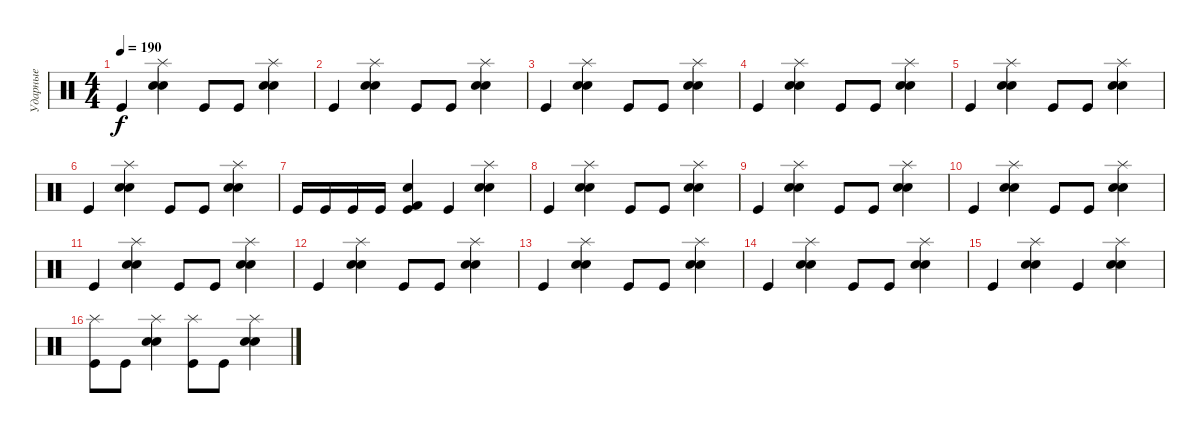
\track ("Ударные" "Ударные") {instrument percussion}
\staff {score}
\articulation defaults
\ts (4 4)
\tempo 190
\clef neutral
\ks c "Kick (hit)".4{dy f}
("Splash (hit)" "Snare (hit) 2" "Electric Snare (hit)").4 "Kick (hit)".8 "Kick (hit)".8 ("Splash (hit)" "Snare (hit) 2" "Electric Snare (hit)").4 |
"Kick (hit)".4 ("Splash (hit)" "Snare (hit) 2" "Electric Snare (hit)").4 "Kick (hit)".8 "Kick (hit)".8 ("Splash (hit)" "Snare (hit) 2" "Electric Snare (hit)").4 |
"Kick (hit)".4 ("Splash (hit)" "Snare (hit) 2" "Electric Snare (hit)").4 "Kick (hit)".8 "Kick (hit)".8 ("Splash (hit)" "Snare (hit) 2" "Electric Snare (hit)").4 |
"Kick (hit)".4 ("Splash (hit)" "Snare (hit) 2" "Electric Snare (hit)").4 "Kick (hit)".8 "Kick (hit)".8 ("Splash (hit)" "Snare (hit) 2" "Electric Snare (hit)").4 |
"Kick (hit)".4 ("Splash (hit)" "Snare (hit) 2" "Electric Snare (hit)").4 "Kick (hit)".8 "Kick (hit)".8 ("Splash (hit)" "Snare (hit) 2" "Electric Snare (hit)").4 |
"Kick (hit)".4 ("Splash (hit)" "Snare (hit) 2" "Electric Snare (hit)").4 "Kick (hit)".8 "Kick (hit)".8 ("Splash (hit)" "Snare (hit) 2" "Electric Snare (hit)").4 |
"Kick (hit)".16 "Kick (hit)".16 "Kick (hit)".16 "Kick (hit)".16 ("Electric Snare (hit)" "Kick (hit)" "Kick (hit) 2").4 "Kick (hit)".4 ("Splash (hit)" "Snare (hit) 2" "Electric Snare (hit)").4 |
"Kick (hit)".4 ("Splash (hit)" "Snare (hit) 2" "Electric Snare (hit)").4 "Kick (hit)".8 "Kick (hit)".8 ("Splash (hit)" "Snare (hit) 2" "Electric Snare (hit)").4 |
"Kick (hit)".4 ("Splash (hit)" "Snare (hit) 2" "Electric Snare (hit)").4 "Kick (hit)".8 "Kick (hit)".8 ("Splash (hit)" "Snare (hit) 2" "Electric Snare (hit)").4 |
"Kick (hit)".4 ("Splash (hit)" "Snare (hit) 2" "Electric Snare (hit)").4 "Kick (hit)".8 "Kick (hit)".8 ("Splash (hit)" "Snare (hit) 2" "Electric Snare (hit)").4 |
"Kick (hit)".4 ("Splash (hit)" "Snare (hit) 2" "Electric Snare (hit)").4 "Kick (hit)".8 "Kick (hit)".8 ("Splash (hit)" "Snare (hit) 2" "Electric Snare (hit)").4 |
"Kick (hit)".4 ("Splash (hit)" "Snare (hit) 2" "Electric Snare (hit)").4 "Kick (hit)".8 "Kick (hit)".8 ("Splash (hit)" "Snare (hit) 2" "Electric Snare (hit)").4 |
"Kick (hit)".4 ("Splash (hit)" "Snare (hit) 2" "Electric Snare (hit)").4 "Kick (hit)".8 "Kick (hit)".8 ("Splash (hit)" "Snare (hit) 2" "Electric Snare (hit)").4 |
"Kick (hit)".4 ("Splash (hit)" "Snare (hit) 2" "Electric Snare (hit)").4 "Kick (hit)".8 "Kick (hit)".8 ("Splash (hit)" "Snare (hit) 2" "Electric Snare (hit)").4 |
"Kick (hit)".4 ("Splash (hit)" "Snare (hit) 2" "Electric Snare (hit)").4 "Kick (hit)".4 ("Splash (hit)" "Snare (hit) 2" "Electric Snare (hit)").4 |
("Splash (hit)" "Kick (hit)").8 "Kick (hit)".8 ("Splash (hit)" "Snare (hit) 2" "Electric Snare (hit)").4 ("Splash (hit)" "Kick (hit)").8 "Kick (hit)".8 ("Splash (hit)" "Snare (hit) 2" "Electric Snare (hit)").4
